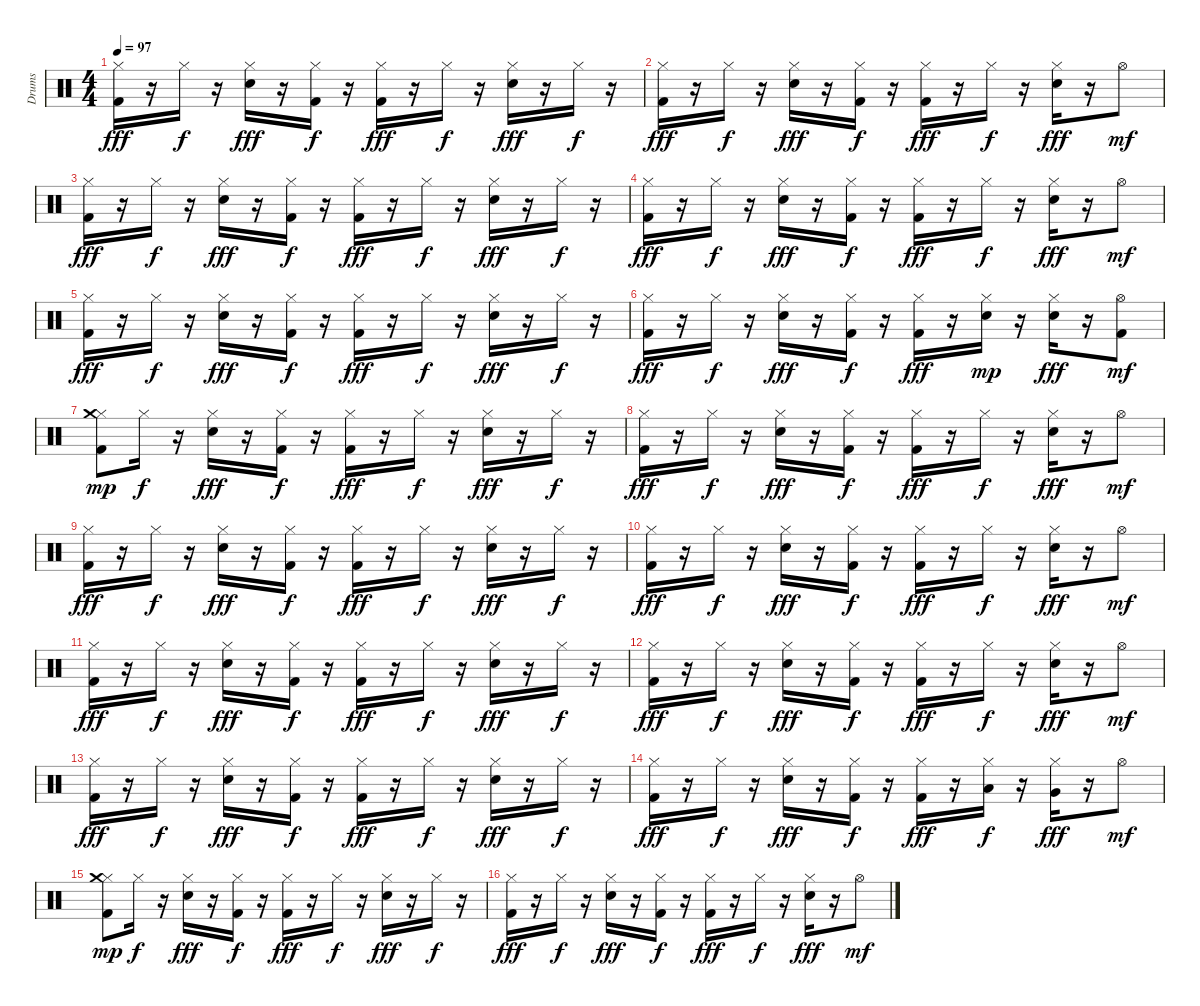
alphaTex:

\track ("Drums" "Drums") {instrument percussion}
\staff {score}
\articulation defaults
\ts (4 4)
\tempo 97
\clef neutral
\ks c
("Kick (hit) 2" "Hi-Hat (closed)").16{dy fff} r.16 "Hi-Hat (closed)".16{dy f} r.16 ("Electric Snare (hit)" "Hi-Hat (closed)").16{dy fff} r.16 ("Kick (hit) 2" "Hi-Hat (closed)").16{dy f} r.16 ("Kick (hit) 2" "Hi-Hat (closed)").16{dy fff} r.16 "Hi-Hat (closed)".16{dy f} r.16 ("Electric Snare (hit)" "Hi-Hat (closed)").16{dy fff} r.16 "Hi-Hat (closed)".16{dy f} r.16 |
("Kick (hit) 2" "Hi-Hat (closed)").16{dy fff} r.16 "Hi-Hat (closed)".16{dy f} r.16 ("Electric Snare (hit)" "Hi-Hat (closed)").16{dy fff} r.16 ("Kick (hit) 2" "Hi-Hat (closed)").16{dy f} r.16 ("Kick (hit) 2" "Hi-Hat (closed)").16{dy fff} r.16 "Hi-Hat (closed)".16{dy f} r.16 ("Electric Snare (hit)" "Hi-Hat (closed)").16{dy fff} r.16 "Hi-Hat (open)".8{dy mf} |
("Kick (hit) 2" "Hi-Hat (closed)").16{dy fff} r.16 "Hi-Hat (closed)".16{dy f} r.16 ("Electric Snare (hit)" "Hi-Hat (closed)").16{dy fff} r.16 ("Kick (hit) 2" "Hi-Hat (closed)").16{dy f} r.16 ("Kick (hit) 2" "Hi-Hat (closed)").16{dy fff} r.16 "Hi-Hat (closed)".16{dy f} r.16 ("Electric Snare (hit)" "Hi-Hat (closed)").16{dy fff} r.16 "Hi-Hat (closed)".16{dy f} r.16 |
("Kick (hit) 2" "Hi-Hat (closed)").16{dy fff} r.16 "Hi-Hat (closed)".16{dy f} r.16 ("Electric Snare (hit)" "Hi-Hat (closed)").16{dy fff} r.16 ("Kick (hit) 2" "Hi-Hat (closed)").16{dy f} r.16 ("Kick (hit) 2" "Hi-Hat (closed)").16{dy fff} r.16 "Hi-Hat (closed)".16{dy f} r.16 ("Electric Snare (hit)" "Hi-Hat (closed)").16{dy fff} r.16 "Hi-Hat (open)".8{dy mf} |
("Kick (hit) 2" "Hi-Hat (closed)").16{dy fff} r.16 "Hi-Hat (closed)".16{dy f} r.16 ("Electric Snare (hit)" "Hi-Hat (closed)").16{dy fff} r.16 ("Kick (hit) 2" "Hi-Hat (closed)").16{dy f} r.16 ("Kick (hit) 2" "Hi-Hat (closed)").16{dy fff} r.16 "Hi-Hat (closed)".16{dy f} r.16 ("Electric Snare (hit)" "Hi-Hat (closed)").16{dy fff} r.16 "Hi-Hat (closed)".16{dy f} r.16 |
("Kick (hit) 2" "Hi-Hat (closed)").16{dy fff} r.16 "Hi-Hat (closed)".16{dy f} r.16 ("Electric Snare (hit)" "Hi-Hat (closed)").16{dy fff} r.16 ("Kick (hit) 2" "Hi-Hat (closed)").16{dy f} r.16 ("Kick (hit) 2" "Hi-Hat (closed)").16{dy fff} r.16 ("Electric Snare (hit)" "Hi-Hat (closed)").16{dy mp} r.16 ("Electric Snare (hit)" "Hi-Hat (closed)").16{dy fff} r.16 ("Kick (hit) 2" "Hi-Hat (open)").8{dy mf} |
("Kick (hit) 2" "Hi-Hat (closed)" "Crash medium (hit)").8{dy mp} "Hi-Hat (closed)".16{dy f} r.16 ("Electric Snare (hit)" "Hi-Hat (closed)").16{dy fff} r.16 ("Kick (hit) 2" "Hi-Hat (closed)").16{dy f} r.16 ("Kick (hit) 2" "Hi-Hat (closed)").16{dy fff} r.16 "Hi-Hat (closed)".16{dy f} r.16 ("Electric Snare (hit)" "Hi-Hat (closed)").16{dy fff} r.16 "Hi-Hat (closed)".16{dy f} r.16 |
("Kick (hit) 2" "Hi-Hat (closed)").16{dy fff} r.16 "Hi-Hat (closed)".16{dy f} r.16 ("Electric Snare (hit)" "Hi-Hat (closed)").16{dy fff} r.16 ("Kick (hit) 2" "Hi-Hat (closed)").16{dy f} r.16 ("Kick (hit) 2" "Hi-Hat (closed)").16{dy fff} r.16 "Hi-Hat (closed)".16{dy f} r.16 ("Electric Snare (hit)" "Hi-Hat (closed)").16{dy fff} r.16 "Hi-Hat (open)".8{dy mf} |
("Kick (hit) 2" "Hi-Hat (closed)").16{dy fff} r.16 "Hi-Hat (closed)".16{dy f} r.16 ("Electric Snare (hit)" "Hi-Hat (closed)").16{dy fff} r.16 ("Kick (hit) 2" "Hi-Hat (closed)").16{dy f} r.16 ("Kick (hit) 2" "Hi-Hat (closed)").16{dy fff} r.16 "Hi-Hat (closed)".16{dy f} r.16 ("Electric Snare (hit)" "Hi-Hat (closed)").16{dy fff} r.16 "Hi-Hat (closed)".16{dy f} r.16 |
("Kick (hit) 2" "Hi-Hat (closed)").16{dy fff} r.16 "Hi-Hat (closed)".16{dy f} r.16 ("Electric Snare (hit)" "Hi-Hat (closed)").16{dy fff} r.16 ("Kick (hit) 2" "Hi-Hat (closed)").16{dy f} r.16 ("Kick (hit) 2" "Hi-Hat (closed)").16{dy fff} r.16 "Hi-Hat (closed)".16{dy f} r.16 ("Electric Snare (hit)" "Hi-Hat (closed)").16{dy fff} r.16 "Hi-Hat (open)".8{dy mf} |
("Kick (hit) 2" "Hi-Hat (closed)").16{dy fff} r.16 "Hi-Hat (closed)".16{dy f} r.16 ("Electric Snare (hit)" "Hi-Hat (closed)").16{dy fff} r.16 ("Kick (hit) 2" "Hi-Hat (closed)").16{dy f} r.16 ("Kick (hit) 2" "Hi-Hat (closed)").16{dy fff} r.16 "Hi-Hat (closed)".16{dy f} r.16 ("Electric Snare (hit)" "Hi-Hat (closed)").16{dy fff} r.16 "Hi-Hat (closed)".16{dy f} r.16 |
("Kick (hit) 2" "Hi-Hat (closed)").16{dy fff} r.16 "Hi-Hat (closed)".16{dy f} r.16 ("Electric Snare (hit)" "Hi-Hat (closed)").16{dy fff} r.16 ("Kick (hit) 2" "Hi-Hat (closed)").16{dy f} r.16 ("Kick (hit) 2" "Hi-Hat (closed)").16{dy fff} r.16 "Hi-Hat (closed)".16{dy f} r.16 ("Electric Snare (hit)" "Hi-Hat (closed)").16{dy fff} r.16 "Hi-Hat (open)".8{dy mf} |
("Kick (hit) 2" "Hi-Hat (closed)").16{dy fff} r.16 "Hi-Hat (closed)".16{dy f} r.16 ("Electric Snare (hit)" "Hi-Hat (closed)").16{dy fff} r.16 ("Kick (hit) 2" "Hi-Hat (closed)").16{dy f} r.16 ("Kick (hit) 2" "Hi-Hat (closed)").16{dy fff} r.16 "Hi-Hat (closed)".16{dy f} r.16 ("Electric Snare (hit)" "Hi-Hat (closed)").16{dy fff} r.16 "Hi-Hat (closed)".16{dy f} r.16 |
("Kick (hit) 2" "Hi-Hat (closed)").16{dy fff} r.16 "Hi-Hat (closed)".16{dy f} r.16 ("Electric Snare (hit)" "Hi-Hat (closed)").16{dy fff} r.16 ("Kick (hit) 2" "Hi-Hat (closed)").16{dy f} r.16 ("Kick (hit) 2" "Hi-Hat (closed)").16{dy fff} r.16 ("Hi-Hat (closed)" "Low Tom (hit)").16{dy f} r.16 ("Hi-Hat (closed)" "Very Low Tom (hit)").16{dy fff} r.16 "Hi-Hat (open)".8{dy mf} |
("Kick (hit) 2" "Hi-Hat (closed)" "Crash medium (hit)").8{dy mp} "Hi-Hat (closed)".16{dy f} r.16 ("Electric Snare (hit)" "Hi-Hat (closed)").16{dy fff} r.16 ("Kick (hit) 2" "Hi-Hat (closed)").16{dy f} r.16 ("Kick (hit) 2" "Hi-Hat (closed)").16{dy fff} r.16 "Hi-Hat (closed)".16{dy f} r.16 ("Electric Snare (hit)" "Hi-Hat (closed)").16{dy fff} r.16 "Hi-Hat (closed)".16{dy f} r.16 |
("Kick (hit) 2" "Hi-Hat (closed)").16{dy fff} r.16 "Hi-Hat (closed)".16{dy f} r.16 ("Electric Snare (hit)" "Hi-Hat (closed)").16{dy fff} r.16 ("Kick (hit) 2" "Hi-Hat (closed)").16{dy f} r.16 ("Kick (hit) 2" "Hi-Hat (closed)").16{dy fff} r.16 "Hi-Hat (closed)".16{dy f} r.16 ("Electric Snare (hit)" "Hi-Hat (closed)").16{dy fff} r.16 "Hi-Hat (open)".8{dy mf}
